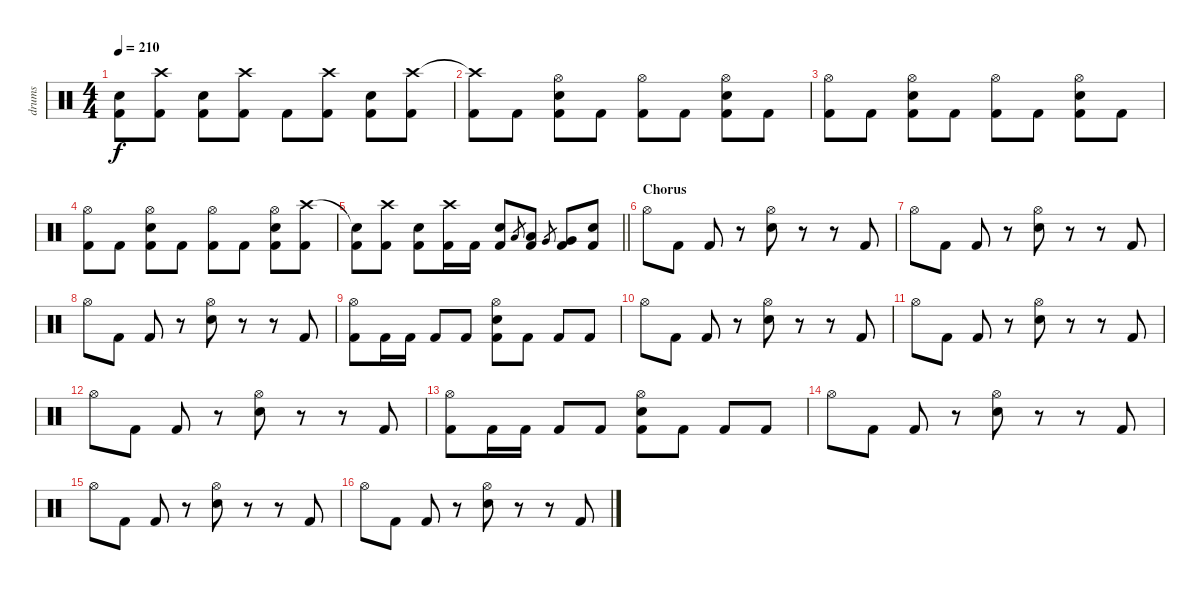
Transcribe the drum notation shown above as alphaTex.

\track ("drums" "drums") {solo instrument percussion}
\staff {score}
\articulation defaults
\ts (4 4)
\tempo 210
\clef neutral
\ks c
("Snare (hit)"{t} "Kick (hit) 2").8{dy f} ("Crash high (hit)" "Kick (hit) 2").8 ("Electric Snare (hit)" "Kick (hit) 2").8 ("Crash high (hit)" "Kick (hit) 2").8 "Kick (hit) 2".8 ("Crash high (hit)" "Kick (hit) 2").8 ("Electric Snare (hit)" "Kick (hit) 2").8 ("Crash high (hit)" "Kick (hit) 2").8 |
("Crash high (hit)"{t} "Kick (hit) 2").8 "Kick (hit) 2".8 ("Hi-Hat (open)" "Electric Snare (hit)" "Kick (hit) 2").8 "Kick (hit) 2".8 ("Hi-Hat (open)" "Kick (hit) 2").8 "Kick (hit) 2".8 ("Hi-Hat (open)" "Electric Snare (hit)" "Kick (hit) 2").8 "Kick (hit) 2".8 |
("Hi-Hat (open)" "Kick (hit) 2").8 "Kick (hit) 2".8 ("Hi-Hat (open)" "Electric Snare (hit)" "Kick (hit) 2").8 "Kick (hit) 2".8 ("Hi-Hat (open)" "Kick (hit) 2").8 "Kick (hit) 2".8 ("Hi-Hat (open)" "Electric Snare (hit)" "Kick (hit) 2").8 "Kick (hit) 2".8 |
("Hi-Hat (open)" "Kick (hit) 2").8 "Kick (hit) 2".8 ("Hi-Hat (open)" "Electric Snare (hit)" "Kick (hit) 2").8 "Kick (hit) 2".8 ("Hi-Hat (open)" "Kick (hit) 2").8 "Kick (hit) 2".8 ("Hi-Hat (open)" "Electric Snare (hit)" "Kick (hit) 2").8 ("Crash high (hit)" "Kick (hit) 2").8 |
\barLineRight lightlight
("Snare (hit)"{t} "Kick (hit) 2").8 ("Crash high (hit)" "Kick (hit) 2").8 ("Electric Snare (hit)" "Kick (hit) 2").8 ("Crash high (hit)" "Kick (hit) 2").16 "Kick (hit) 2".16 ("Electric Snare (hit)" "Kick (hit) 2").8 "Low Floor Tom (hit)".8{gr} ("Low Floor Tom (hit)" "Kick (hit) 2").8 "Very Low Tom (hit)".8{gr} ("Very Low Tom (hit)" "Kick (hit) 2").8 ("Electric Snare (hit)" "Kick (hit) 2").8 |
\section ("" "Chorus")
"Hi-Hat (open)".8 "Kick (hit) 2".8 "Kick (hit) 2".8 r.8 ("Hi-Hat (open)" "Electric Snare (hit)").8 r.8 r.8 "Kick (hit) 2".8 |
"Hi-Hat (open)".8 "Kick (hit) 2".8 "Kick (hit) 2".8 r.8 ("Hi-Hat (open)" "Electric Snare (hit)").8 r.8 r.8 "Kick (hit) 2".8 |
"Hi-Hat (open)".8 "Kick (hit) 2".8 "Kick (hit) 2".8 r.8 ("Hi-Hat (open)" "Electric Snare (hit)").8 r.8 r.8 "Kick (hit) 2".8 |
("Hi-Hat (open)" "Kick (hit) 2").8 "Kick (hit) 2".16 "Kick (hit) 2".16 "Kick (hit) 2".8 "Kick (hit) 2".8 ("Hi-Hat (open)" "Electric Snare (hit)" "Kick (hit) 2").8 "Kick (hit) 2".8 "Kick (hit) 2".8 "Kick (hit) 2".8 |
"Hi-Hat (open)".8 "Kick (hit) 2".8 "Kick (hit) 2".8 r.8 ("Hi-Hat (open)" "Electric Snare (hit)").8 r.8 r.8 "Kick (hit) 2".8 |
"Hi-Hat (open)".8 "Kick (hit) 2".8 "Kick (hit) 2".8 r.8 ("Hi-Hat (open)" "Electric Snare (hit)").8 r.8 r.8 "Kick (hit) 2".8 |
"Hi-Hat (open)".8 "Kick (hit) 2".8 "Kick (hit) 2".8 r.8 ("Hi-Hat (open)" "Electric Snare (hit)").8 r.8 r.8 "Kick (hit) 2".8 |
("Hi-Hat (open)" "Kick (hit) 2").8 "Kick (hit) 2".16 "Kick (hit) 2".16 "Kick (hit) 2".8 "Kick (hit) 2".8 ("Hi-Hat (open)" "Electric Snare (hit)" "Kick (hit) 2").8 "Kick (hit) 2".8 "Kick (hit) 2".8 "Kick (hit) 2".8 |
"Hi-Hat (open)".8 "Kick (hit) 2".8 "Kick (hit) 2".8 r.8 ("Hi-Hat (open)" "Electric Snare (hit)").8 r.8 r.8 "Kick (hit) 2".8 |
"Hi-Hat (open)".8 "Kick (hit) 2".8 "Kick (hit) 2".8 r.8 ("Hi-Hat (open)" "Electric Snare (hit)").8 r.8 r.8 "Kick (hit) 2".8 |
"Hi-Hat (open)".8 "Kick (hit) 2".8 "Kick (hit) 2".8 r.8 ("Hi-Hat (open)" "Electric Snare (hit)").8 r.8 r.8 "Kick (hit) 2".8
